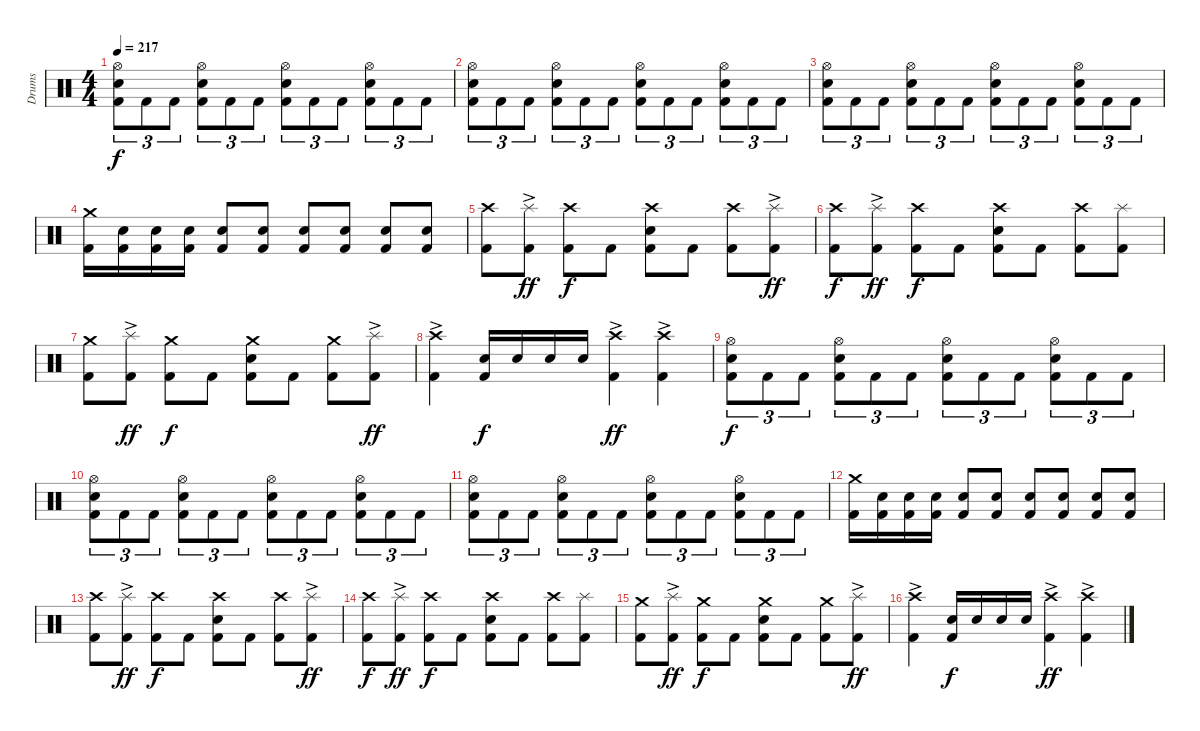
\track ("Drums" "Drums") {instrument percussion}
\staff {score}
\articulation defaults
\ts (4 4)
\tempo 217
\clef neutral
\ks c
("Hi-Hat (open)" "Electric Snare (hit)" "Kick (hit) 2").8{tu (3 2) dy f} "Kick (hit) 2".8{tu (3 2)} "Kick (hit) 2".8{tu (3 2)} ("Hi-Hat (open)" "Electric Snare (hit)" "Kick (hit) 2").8{tu (3 2)} "Kick (hit) 2".8{tu (3 2)} "Kick (hit) 2".8{tu (3 2)} ("Hi-Hat (open)" "Electric Snare (hit)" "Kick (hit) 2").8{tu (3 2)} "Kick (hit) 2".8{tu (3 2)} "Kick (hit) 2".8{tu (3 2)} ("Hi-Hat (open)" "Electric Snare (hit)" "Kick (hit) 2").8{tu (3 2)} "Kick (hit) 2".8{tu (3 2)} "Kick (hit) 2".8{tu (3 2)} |
("Hi-Hat (open)" "Electric Snare (hit)" "Kick (hit) 2").8{tu (3 2)} "Kick (hit) 2".8{tu (3 2)} "Kick (hit) 2".8{tu (3 2)} ("Hi-Hat (open)" "Electric Snare (hit)" "Kick (hit) 2").8{tu (3 2)} "Kick (hit) 2".8{tu (3 2)} "Kick (hit) 2".8{tu (3 2)} ("Hi-Hat (open)" "Electric Snare (hit)" "Kick (hit) 2").8{tu (3 2)} "Kick (hit) 2".8{tu (3 2)} "Kick (hit) 2".8{tu (3 2)} ("Hi-Hat (open)" "Electric Snare (hit)" "Kick (hit) 2").8{tu (3 2)} "Kick (hit) 2".8{tu (3 2)} "Kick (hit) 2".8{tu (3 2)} |
("Hi-Hat (open)" "Electric Snare (hit)" "Kick (hit) 2").8{tu (3 2)} "Kick (hit) 2".8{tu (3 2)} "Kick (hit) 2".8{tu (3 2)} ("Hi-Hat (open)" "Electric Snare (hit)" "Kick (hit) 2").8{tu (3 2)} "Kick (hit) 2".8{tu (3 2)} "Kick (hit) 2".8{tu (3 2)} ("Hi-Hat (open)" "Electric Snare (hit)" "Kick (hit) 2").8{tu (3 2)} "Kick (hit) 2".8{tu (3 2)} "Kick (hit) 2".8{tu (3 2)} ("Hi-Hat (open)" "Electric Snare (hit)" "Kick (hit) 2").8{tu (3 2)} "Kick (hit) 2".8{tu (3 2)} "Kick (hit) 2".8{tu (3 2)} |
("Crash medium (hit)" "Kick (hit) 2").16 ("Electric Snare (hit)" "Kick (hit) 2").16 ("Electric Snare (hit)" "Kick (hit) 2").16 ("Electric Snare (hit)" "Kick (hit) 2").16 ("Electric Snare (hit)" "Kick (hit) 2").8 ("Electric Snare (hit)" "Kick (hit) 2").8 ("Electric Snare (hit)" "Kick (hit) 2").8 ("Electric Snare (hit)" "Kick (hit) 2").8 ("Electric Snare (hit)" "Kick (hit) 2").8 ("Electric Snare (hit)" "Kick (hit) 2").8 |
("Crash high (hit)" "Kick (hit) 2").8 ("Splash (hit)"{ac} "Kick (hit) 2").8{dy ff} ("Crash high (hit)" "Kick (hit) 2").8{dy f} "Kick (hit) 2".8 ("Crash high (hit)" "Electric Snare (hit)" "Kick (hit) 2").8 "Kick (hit) 2".8 ("Crash high (hit)" "Kick (hit) 2").8 ("Splash (hit)"{ac} "Kick (hit) 2").8{dy ff} |
("Crash high (hit)" "Kick (hit) 2").8{dy f} ("Splash (hit)"{ac} "Kick (hit) 2").8{dy ff} ("Crash high (hit)" "Kick (hit) 2").8{dy f} "Kick (hit) 2".8 ("Crash high (hit)" "Electric Snare (hit)" "Kick (hit) 2").8 "Kick (hit) 2".8 ("Crash high (hit)" "Kick (hit) 2").8 ("Splash (hit)" "Kick (hit) 2").8 |
("Crash medium (hit)" "Kick (hit) 2").8 ("Splash (hit)"{ac} "Kick (hit) 2").8{dy ff} ("Crash medium (hit)" "Kick (hit) 2").8{dy f} "Kick (hit) 2".8 ("Crash medium (hit)" "Electric Snare (hit)" "Kick (hit) 2").8 "Kick (hit) 2".8 ("Crash medium (hit)" "Kick (hit) 2").8 ("Splash (hit)"{ac} "Kick (hit) 2").8{dy ff} |
("Crash high (hit)" "Kick (hit) 2"{ac}).4 ("Electric Snare (hit)" "Kick (hit) 2").16{dy f} "Electric Snare (hit)".16 "Electric Snare (hit)".16 "Electric Snare (hit)".16 ("Crash high (hit)" "Kick (hit) 2"{ac}).4{dy ff} ("Crash high (hit)" "Kick (hit) 2"{ac}).4 |
("Hi-Hat (open)" "Electric Snare (hit)" "Kick (hit) 2").8{tu (3 2) dy f} "Kick (hit) 2".8{tu (3 2)} "Kick (hit) 2".8{tu (3 2)} ("Hi-Hat (open)" "Electric Snare (hit)" "Kick (hit) 2").8{tu (3 2)} "Kick (hit) 2".8{tu (3 2)} "Kick (hit) 2".8{tu (3 2)} ("Hi-Hat (open)" "Electric Snare (hit)" "Kick (hit) 2").8{tu (3 2)} "Kick (hit) 2".8{tu (3 2)} "Kick (hit) 2".8{tu (3 2)} ("Hi-Hat (open)" "Electric Snare (hit)" "Kick (hit) 2").8{tu (3 2)} "Kick (hit) 2".8{tu (3 2)} "Kick (hit) 2".8{tu (3 2)} |
("Hi-Hat (open)" "Electric Snare (hit)" "Kick (hit) 2").8{tu (3 2)} "Kick (hit) 2".8{tu (3 2)} "Kick (hit) 2".8{tu (3 2)} ("Hi-Hat (open)" "Electric Snare (hit)" "Kick (hit) 2").8{tu (3 2)} "Kick (hit) 2".8{tu (3 2)} "Kick (hit) 2".8{tu (3 2)} ("Hi-Hat (open)" "Electric Snare (hit)" "Kick (hit) 2").8{tu (3 2)} "Kick (hit) 2".8{tu (3 2)} "Kick (hit) 2".8{tu (3 2)} ("Hi-Hat (open)" "Electric Snare (hit)" "Kick (hit) 2").8{tu (3 2)} "Kick (hit) 2".8{tu (3 2)} "Kick (hit) 2".8{tu (3 2)} |
("Hi-Hat (open)" "Electric Snare (hit)" "Kick (hit) 2").8{tu (3 2)} "Kick (hit) 2".8{tu (3 2)} "Kick (hit) 2".8{tu (3 2)} ("Hi-Hat (open)" "Electric Snare (hit)" "Kick (hit) 2").8{tu (3 2)} "Kick (hit) 2".8{tu (3 2)} "Kick (hit) 2".8{tu (3 2)} ("Hi-Hat (open)" "Electric Snare (hit)" "Kick (hit) 2").8{tu (3 2)} "Kick (hit) 2".8{tu (3 2)} "Kick (hit) 2".8{tu (3 2)} ("Hi-Hat (open)" "Electric Snare (hit)" "Kick (hit) 2").8{tu (3 2)} "Kick (hit) 2".8{tu (3 2)} "Kick (hit) 2".8{tu (3 2)} |
("Crash medium (hit)" "Kick (hit) 2").16 ("Electric Snare (hit)" "Kick (hit) 2").16 ("Electric Snare (hit)" "Kick (hit) 2").16 ("Electric Snare (hit)" "Kick (hit) 2").16 ("Electric Snare (hit)" "Kick (hit) 2").8 ("Electric Snare (hit)" "Kick (hit) 2").8 ("Electric Snare (hit)" "Kick (hit) 2").8 ("Electric Snare (hit)" "Kick (hit) 2").8 ("Electric Snare (hit)" "Kick (hit) 2").8 ("Electric Snare (hit)" "Kick (hit) 2").8 |
("Crash high (hit)" "Kick (hit) 2").8 ("Splash (hit)"{ac} "Kick (hit) 2").8{dy ff} ("Crash high (hit)" "Kick (hit) 2").8{dy f} "Kick (hit) 2".8 ("Crash high (hit)" "Electric Snare (hit)" "Kick (hit) 2").8 "Kick (hit) 2".8 ("Crash high (hit)" "Kick (hit) 2").8 ("Splash (hit)"{ac} "Kick (hit) 2").8{dy ff} |
("Crash high (hit)" "Kick (hit) 2").8{dy f} ("Splash (hit)"{ac} "Kick (hit) 2").8{dy ff} ("Crash high (hit)" "Kick (hit) 2").8{dy f} "Kick (hit) 2".8 ("Crash high (hit)" "Electric Snare (hit)" "Kick (hit) 2").8 "Kick (hit) 2".8 ("Crash high (hit)" "Kick (hit) 2").8 ("Splash (hit)" "Kick (hit) 2").8 |
("Crash medium (hit)" "Kick (hit) 2").8 ("Splash (hit)"{ac} "Kick (hit) 2").8{dy ff} ("Crash medium (hit)" "Kick (hit) 2").8{dy f} "Kick (hit) 2".8 ("Crash medium (hit)" "Electric Snare (hit)" "Kick (hit) 2").8 "Kick (hit) 2".8 ("Crash medium (hit)" "Kick (hit) 2").8 ("Splash (hit)"{ac} "Kick (hit) 2").8{dy ff} |
("Crash high (hit)" "Kick (hit) 2"{ac}).4 ("Electric Snare (hit)" "Kick (hit) 2").16{dy f} "Electric Snare (hit)".16 "Electric Snare (hit)".16 "Electric Snare (hit)".16 ("Crash high (hit)" "Kick (hit) 2"{ac}).4{dy ff} ("Crash high (hit)" "Kick (hit) 2"{ac}).4
